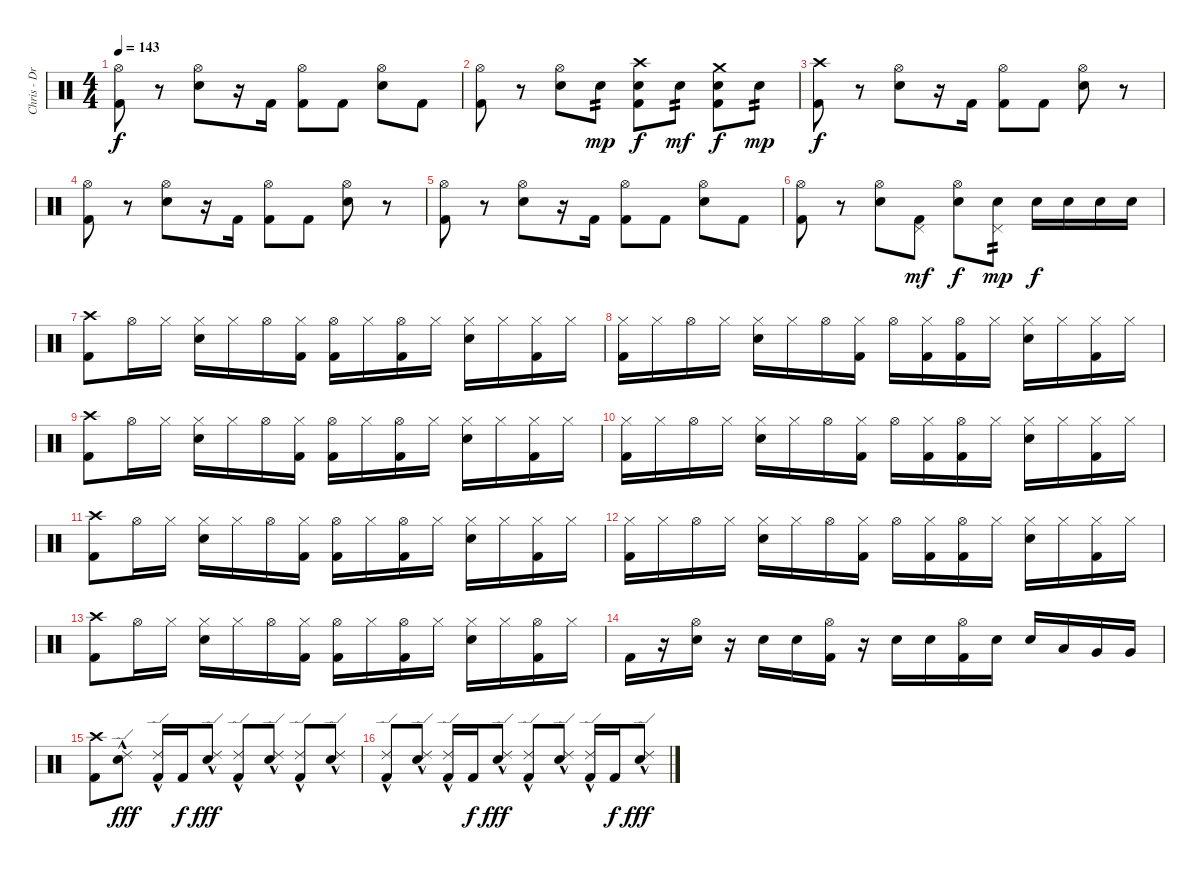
\track ("Chris - Drums" "Chris - Dr") {instrument percussion}
\staff {score}
\articulation defaults
\ts (4 4)
\tempo 143
\clef neutral
\ks c
("Hi-Hat (open)" "Kick (hit) 2").8{dy f} r.8 ("Hi-Hat (open)" "Electric Snare (hit)").8 r.16 "Kick (hit) 2".16 ("Hi-Hat (open)" "Kick (hit) 2").8 "Kick (hit) 2".8 ("Hi-Hat (open)" "Electric Snare (hit)").8 "Kick (hit) 2".8 |
("Hi-Hat (open)" "Kick (hit) 2").8 r.8 ("Hi-Hat (open)" "Electric Snare (hit)").8 "Electric Snare (hit)".8{tp 2 dy mp} ("Crash high (hit)" "Electric Snare (hit)" "Kick (hit) 2").8{dy f} "Electric Snare (hit)".8{tp 2 dy mf} ("Crash medium (hit)" "Electric Snare (hit)" "Kick (hit) 2").8{dy f} "Electric Snare (hit)".8{tp 2 dy mp} |
("Crash high (hit)" "Kick (hit) 2").8{dy f} r.8 ("Hi-Hat (open)" "Electric Snare (hit)").8 r.16 "Kick (hit) 2".16 ("Hi-Hat (open)" "Kick (hit) 2").8 "Kick (hit) 2".8 ("Hi-Hat (open)" "Electric Snare (hit)").8 r.8 |
("Hi-Hat (open)" "Kick (hit) 2").8 r.8 ("Hi-Hat (open)" "Electric Snare (hit)").8 r.16 "Kick (hit) 2".16 ("Hi-Hat (open)" "Kick (hit) 2").8 "Kick (hit) 2".8 ("Hi-Hat (open)" "Electric Snare (hit)").8 r.8 |
("Hi-Hat (open)" "Kick (hit) 2").8 r.8 ("Hi-Hat (open)" "Electric Snare (hit)").8 r.16 "Kick (hit) 2".16 ("Hi-Hat (open)" "Kick (hit) 2").8 "Kick (hit) 2".8 ("Hi-Hat (open)" "Electric Snare (hit)").8 "Kick (hit) 2".8 |
("Hi-Hat (open)" "Kick (hit) 2").8 r.8 ("Hi-Hat (open)" "Electric Snare (hit)").8 ("Pedal Hi-Hat (hit)" "Kick (hit) 2").8{dy mf} ("Hi-Hat (open)" "Electric Snare (hit)").8{dy f} ("Pedal Hi-Hat (hit)" "Electric Snare (hit)").8{tp 2 dy mp} "Electric Snare (hit)".16{dy f} "Electric Snare (hit)".16 "Electric Snare (hit)".16 "Electric Snare (hit)".16 |
("Crash high (hit)" "Kick (hit) 2").8 "Hi-Hat (open)".16 "Hi-Hat (closed)".16 ("Hi-Hat (closed)" "Electric Snare (hit)").16 "Hi-Hat (closed)".16 "Hi-Hat (open)".16 ("Hi-Hat (closed)" "Kick (hit) 2").16 ("Hi-Hat (open)" "Kick (hit) 2").16 "Hi-Hat (closed)".16 ("Hi-Hat (open)" "Kick (hit) 2").16 "Hi-Hat (closed)".16 ("Hi-Hat (closed)" "Electric Snare (hit)").16 "Hi-Hat (closed)".16 ("Hi-Hat (closed)" "Kick (hit) 2").16 "Hi-Hat (closed)".16 |
("Hi-Hat (closed)" "Kick (hit) 2").16 "Hi-Hat (closed)".16 "Hi-Hat (open)".16 "Hi-Hat (closed)".16 ("Hi-Hat (closed)" "Electric Snare (hit)").16 "Hi-Hat (closed)".16 "Hi-Hat (open)".16 ("Hi-Hat (closed)" "Kick (hit) 2").16 "Hi-Hat (open)".16 ("Hi-Hat (closed)" "Kick (hit) 2").16 ("Hi-Hat (open)" "Kick (hit) 2").16 "Hi-Hat (closed)".16 ("Hi-Hat (closed)" "Electric Snare (hit)").16 "Hi-Hat (closed)".16 ("Hi-Hat (closed)" "Kick (hit) 2").16 "Hi-Hat (closed)".16 |
("Crash high (hit)" "Kick (hit) 2").8 "Hi-Hat (open)".16 "Hi-Hat (closed)".16 ("Hi-Hat (closed)" "Electric Snare (hit)").16 "Hi-Hat (closed)".16 "Hi-Hat (open)".16 ("Hi-Hat (closed)" "Kick (hit) 2").16 ("Hi-Hat (open)" "Kick (hit) 2").16 "Hi-Hat (closed)".16 ("Hi-Hat (open)" "Kick (hit) 2").16 "Hi-Hat (closed)".16 ("Hi-Hat (closed)" "Electric Snare (hit)").16 "Hi-Hat (closed)".16 ("Hi-Hat (closed)" "Kick (hit) 2").16 "Hi-Hat (closed)".16 |
("Hi-Hat (closed)" "Kick (hit) 2").16 "Hi-Hat (closed)".16 "Hi-Hat (open)".16 "Hi-Hat (closed)".16 ("Hi-Hat (closed)" "Electric Snare (hit)").16 "Hi-Hat (closed)".16 "Hi-Hat (open)".16 ("Hi-Hat (closed)" "Kick (hit) 2").16 "Hi-Hat (open)".16 ("Hi-Hat (closed)" "Kick (hit) 2").16 ("Hi-Hat (open)" "Kick (hit) 2").16 "Hi-Hat (closed)".16 ("Hi-Hat (closed)" "Electric Snare (hit)").16 "Hi-Hat (closed)".16 ("Hi-Hat (closed)" "Kick (hit) 2").16 "Hi-Hat (closed)".16 |
("Crash high (hit)" "Kick (hit) 2").8 "Hi-Hat (open)".16 "Hi-Hat (closed)".16 ("Hi-Hat (closed)" "Electric Snare (hit)").16 "Hi-Hat (closed)".16 "Hi-Hat (open)".16 ("Hi-Hat (closed)" "Kick (hit) 2").16 ("Hi-Hat (open)" "Kick (hit) 2").16 "Hi-Hat (closed)".16 ("Hi-Hat (open)" "Kick (hit) 2").16 "Hi-Hat (closed)".16 ("Hi-Hat (closed)" "Electric Snare (hit)").16 "Hi-Hat (closed)".16 ("Hi-Hat (closed)" "Kick (hit) 2").16 "Hi-Hat (closed)".16 |
("Hi-Hat (closed)" "Kick (hit) 2").16 "Hi-Hat (closed)".16 "Hi-Hat (open)".16 "Hi-Hat (closed)".16 ("Hi-Hat (closed)" "Electric Snare (hit)").16 "Hi-Hat (closed)".16 "Hi-Hat (open)".16 ("Hi-Hat (closed)" "Kick (hit) 2").16 "Hi-Hat (open)".16 ("Hi-Hat (closed)" "Kick (hit) 2").16 ("Hi-Hat (open)" "Kick (hit) 2").16 "Hi-Hat (closed)".16 ("Hi-Hat (closed)" "Electric Snare (hit)").16 "Hi-Hat (closed)".16 ("Hi-Hat (closed)" "Kick (hit) 2").16 "Hi-Hat (closed)".16 |
("Crash high (hit)" "Kick (hit) 2").8 "Hi-Hat (open)".16 "Hi-Hat (closed)".16 ("Hi-Hat (closed)" "Electric Snare (hit)").16 "Hi-Hat (closed)".16 "Hi-Hat (open)".16 ("Hi-Hat (closed)" "Kick (hit) 2").16 ("Hi-Hat (open)" "Kick (hit) 2").16 "Hi-Hat (closed)".16 ("Hi-Hat (open)" "Kick (hit) 2").16 "Hi-Hat (closed)".16 ("Hi-Hat (closed)" "Electric Snare (hit)").16 "Hi-Hat (closed)".16 ("Hi-Hat (open)" "Kick (hit) 2").16 "Hi-Hat (closed)".16 |
"Kick (hit) 2".16 r.16 ("Hi-Hat (open)" "Electric Snare (hit)").16 r.16 "Electric Snare (hit)".16 "Electric Snare (hit)".16 ("Hi-Hat (open)" "Kick (hit) 2").16 r.16 "Electric Snare (hit)".16 "Electric Snare (hit)".16 ("Hi-Hat (open)" "Kick (hit) 2").16 "Electric Snare (hit)".16 "Electric Snare (hit)".16 "Low Tom (hit)".16 "Very Low Tom (hit)".16 "Very Low Tom (hit)".16 |
("Crash high (hit)" "Kick (hit) 2").8 ("Ride (edge) 2"{hac} "Electric Snare (hit)").8{dy fff} ("Ride (edge) 2"{hac} "Kick (hit) 2").16 "Kick (hit) 2".16{dy f} ("Ride (edge) 2"{hac} "Electric Snare (hit)").8{dy fff} ("Ride (edge) 2"{hac} "Kick (hit) 2").8 ("Ride (edge) 2"{hac} "Electric Snare (hit)").8 ("Ride (edge) 2"{hac} "Kick (hit) 2").8 ("Ride (edge) 2"{hac} "Electric Snare (hit)").8 |
("Ride (edge) 2"{hac} "Kick (hit) 2").8 ("Ride (edge) 2"{hac} "Electric Snare (hit)").8 ("Ride (edge) 2"{hac} "Kick (hit) 2").16 "Kick (hit) 2".16{dy f} ("Ride (edge) 2"{hac} "Electric Snare (hit)").8{dy fff} ("Ride (edge) 2"{hac} "Kick (hit) 2").8 ("Ride (edge) 2"{hac} "Electric Snare (hit)").8 ("Ride (edge) 2"{hac} "Kick (hit) 2").16 "Kick (hit) 2".16{dy f} ("Ride (edge) 2"{hac} "Electric Snare (hit)").8{dy fff}
